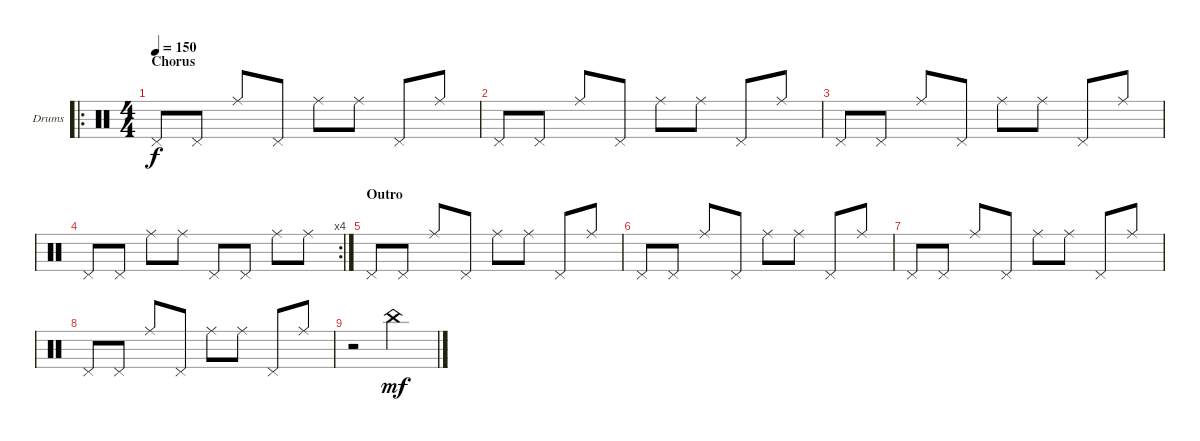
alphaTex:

\defaultSystemsLayout 4
\bracketExtendMode groupsimilarinstruments
\firstSystemTrackNameOrientation horizontal
\otherSystemsTrackNameOrientation horizontal
\track ("Nazar" "Drums") {instrument percussion}
\staff {score}
\articulation defaults
\ro
\ts (4 4)
\section ("" "Chorus")
\tempo 150
\clef neutral
\ks c "Pedal Hi-Hat (hit)".8{dy f} "Pedal Hi-Hat (hit)".8 "Ride (middle)".8 "Pedal Hi-Hat (hit)".8 "Ride (middle)".8 "Ride (middle)".8 "Pedal Hi-Hat (hit)".8 "Ride (middle)".8
|
"Pedal Hi-Hat (hit)".8 "Pedal Hi-Hat (hit)".8 "Ride (middle)".8 "Pedal Hi-Hat (hit)".8 "Ride (middle)".8 "Ride (middle)".8 "Pedal Hi-Hat (hit)".8 "Ride (middle)".8 |
"Pedal Hi-Hat (hit)".8 "Pedal Hi-Hat (hit)".8 "Ride (middle)".8 "Pedal Hi-Hat (hit)".8 "Ride (middle)".8 "Ride (middle)".8 "Pedal Hi-Hat (hit)".8 "Ride (middle)".8 |
\rc 4 "Pedal Hi-Hat (hit)".8 "Pedal Hi-Hat (hit)".8 "Ride (middle)".8 "Ride (middle)".8 "Pedal Hi-Hat (hit)".8 "Pedal Hi-Hat (hit)".8 "Ride (middle)".8 "Ride (middle)".8
|
\section ("" "Outro")
"Pedal Hi-Hat (hit)".8 "Pedal Hi-Hat (hit)".8 "Ride (middle)".8 "Pedal Hi-Hat (hit)".8 "Ride (middle)".8 "Ride (middle)".8 "Pedal Hi-Hat (hit)".8 "Ride (middle)".8 |
"Pedal Hi-Hat (hit)".8 "Pedal Hi-Hat (hit)".8 "Ride (middle)".8 "Pedal Hi-Hat (hit)".8 "Ride (middle)".8 "Ride (middle)".8 "Pedal Hi-Hat (hit)".8 "Ride (middle)".8 |
"Pedal Hi-Hat (hit)".8 "Pedal Hi-Hat (hit)".8 "Ride (middle)".8 "Pedal Hi-Hat (hit)".8 "Ride (middle)".8 "Ride (middle)".8 "Pedal Hi-Hat (hit)".8 "Ride (middle)".8 |
"Pedal Hi-Hat (hit)".8 "Pedal Hi-Hat (hit)".8 "Ride (middle)".8 "Pedal Hi-Hat (hit)".8 "Ride (middle)".8 "Ride (middle)".8 "Pedal Hi-Hat (hit)".8 "Ride (middle)".8 |
r.2 "China (hit)".2{dy mf}
